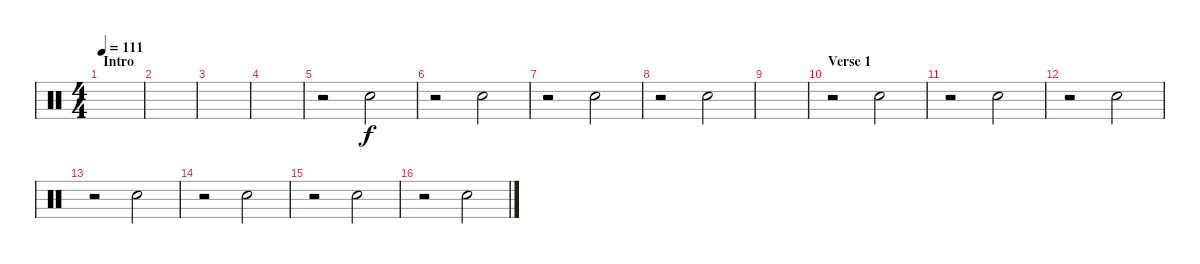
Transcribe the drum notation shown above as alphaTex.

\track "" {instrument percussion}
\staff {score}
\articulation defaults
\ts (4 4)
\section ("" "Intro")
\tempo 111
\clef neutral
\ks c
|
|
|
|
r.2 "Electric Snare (hit)".2 |
r.2 "Electric Snare (hit)".2 |
r.2 "Electric Snare (hit)".2 |
r.2 "Electric Snare (hit)".2 |
|
\section ("" "Verse 1")
r.2 "Electric Snare (hit)".2 |
r.2 "Electric Snare (hit)".2 |
r.2 "Electric Snare (hit)".2 |
r.2 "Electric Snare (hit)".2 |
r.2 "Electric Snare (hit)".2 |
r.2 "Electric Snare (hit)".2 |
r.2 "Electric Snare (hit)".2
